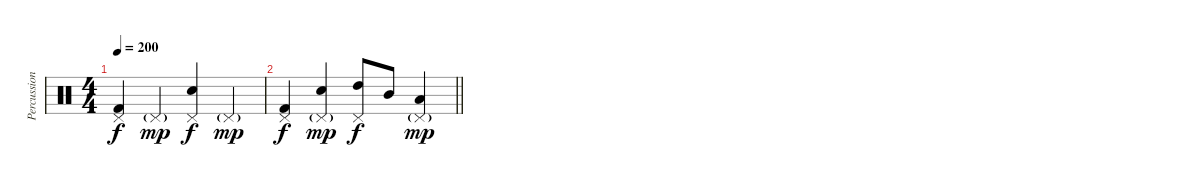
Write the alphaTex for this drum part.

\track ("Percussion" "Percussion") {instrument percussion}
\staff {score}
\articulation defaults
\ts (4 4)
\tempo 200
\clef neutral
\ks c
("Pedal Hi-Hat (hit)" "Kick (hit) 2").4{dy f} "Pedal Hi-Hat (hit)"{g}.4{dy mp} ("Pedal Hi-Hat (hit)" "Snare (hit) 2").4{dy f} "Pedal Hi-Hat (hit)"{g}.4{dy mp} |
\barLineRight lightlight
("Pedal Hi-Hat (hit)" "Kick (hit) 2").4{dy f} ("Pedal Hi-Hat (hit)"{g} "Snare (hit) 2").4{dy mp} ("Pedal Hi-Hat (hit)" "High Tom (hit)").8{dy f} "Mid Tom (hit)".8 ("Pedal Hi-Hat (hit)"{g} "Low Tom (hit)").4{dy mp}
